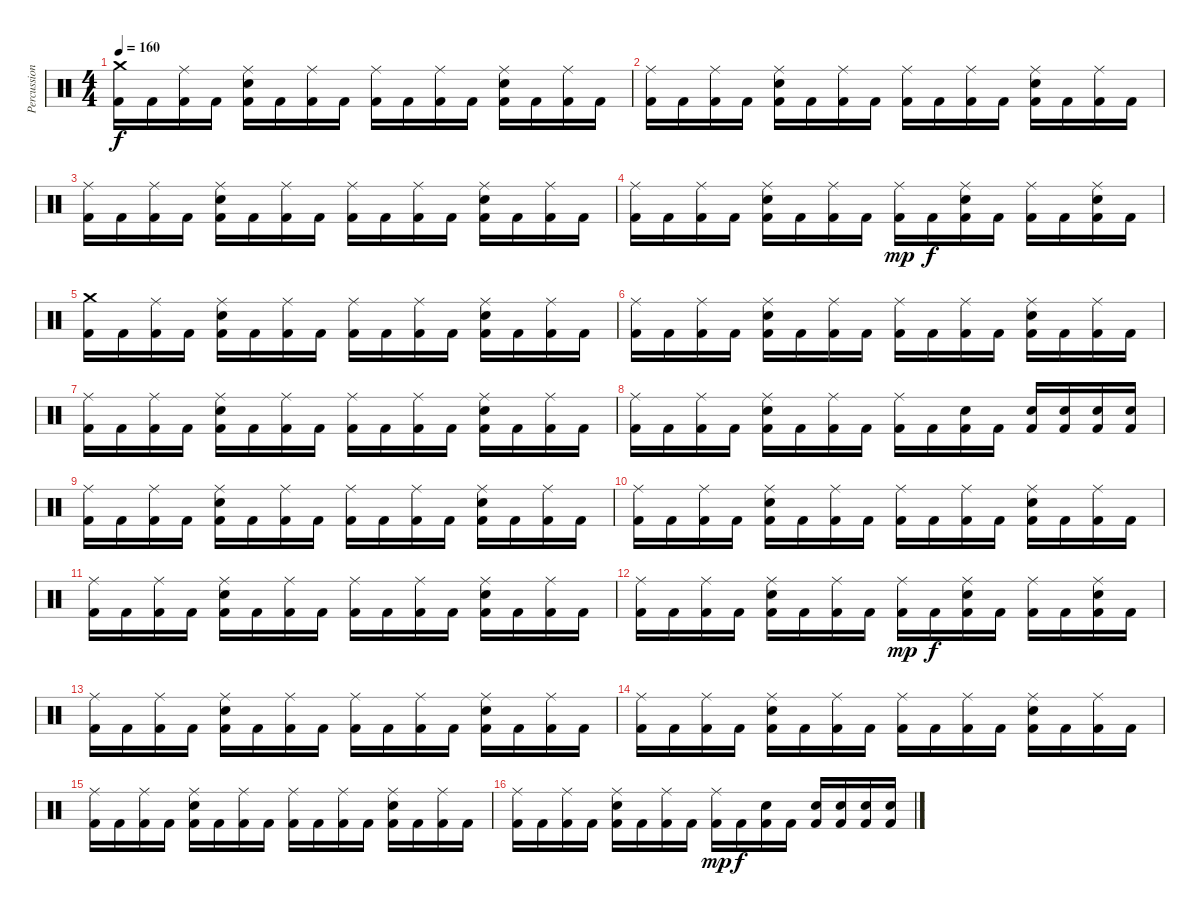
\track ("Percussions" "Percussion") {instrument percussion}
\staff {score}
\articulation defaults
\ts (4 4)
\tempo 160
\clef neutral
\ks c
("Crash medium (hit)" "Kick (hit) 2").16{dy f} "Kick (hit) 2".16 ("Ride (middle)" "Kick (hit) 2").16 "Kick (hit) 2".16 ("Ride (middle)" "Snare (hit) 2" "Kick (hit) 2").16 "Kick (hit) 2".16 ("Ride (middle)" "Kick (hit) 2").16 "Kick (hit) 2".16 ("Ride (middle)" "Kick (hit) 2").16 "Kick (hit) 2".16 ("Ride (middle)" "Kick (hit) 2").16 "Kick (hit) 2".16 ("Ride (middle)" "Snare (hit) 2" "Kick (hit) 2").16 "Kick (hit) 2".16 ("Ride (middle)" "Kick (hit) 2").16 "Kick (hit) 2".16 |
("Ride (middle)" "Kick (hit) 2").16 "Kick (hit) 2".16 ("Ride (middle)" "Kick (hit) 2").16 "Kick (hit) 2".16 ("Ride (middle)" "Snare (hit) 2" "Kick (hit) 2").16 "Kick (hit) 2".16 ("Ride (middle)" "Kick (hit) 2").16 "Kick (hit) 2".16 ("Ride (middle)" "Kick (hit) 2").16 "Kick (hit) 2".16 ("Ride (middle)" "Kick (hit) 2").16 "Kick (hit) 2".16 ("Ride (middle)" "Snare (hit) 2" "Kick (hit) 2").16 "Kick (hit) 2".16 ("Ride (middle)" "Kick (hit) 2").16 "Kick (hit) 2".16 |
("Ride (middle)" "Kick (hit) 2").16 "Kick (hit) 2".16 ("Ride (middle)" "Kick (hit) 2").16 "Kick (hit) 2".16 ("Ride (middle)" "Snare (hit) 2" "Kick (hit) 2").16 "Kick (hit) 2".16 ("Ride (middle)" "Kick (hit) 2").16 "Kick (hit) 2".16 ("Ride (middle)" "Kick (hit) 2").16 "Kick (hit) 2".16 ("Ride (middle)" "Kick (hit) 2").16 "Kick (hit) 2".16 ("Ride (middle)" "Snare (hit) 2" "Kick (hit) 2").16 "Kick (hit) 2".16 ("Ride (middle)" "Kick (hit) 2").16 "Kick (hit) 2".16 |
("Ride (middle)" "Kick (hit) 2").16 "Kick (hit) 2".16 ("Ride (middle)" "Kick (hit) 2").16 "Kick (hit) 2".16 ("Ride (middle)" "Snare (hit) 2" "Kick (hit) 2").16 "Kick (hit) 2".16 ("Ride (middle)" "Kick (hit) 2").16 "Kick (hit) 2".16 ("Ride (middle)" "Kick (hit) 2").16{dy mp} "Kick (hit) 2".16{dy f} ("Ride (middle)" "Snare (hit) 2" "Kick (hit) 2").16 "Kick (hit) 2".16 ("Ride (middle)" "Kick (hit) 2").16 "Kick (hit) 2".16 ("Ride (middle)" "Snare (hit) 2" "Kick (hit) 2").16 "Kick (hit) 2".16 |
("Crash medium (hit)" "Kick (hit) 2").16 "Kick (hit) 2".16 ("Ride (middle)" "Kick (hit) 2").16 "Kick (hit) 2".16 ("Ride (middle)" "Snare (hit) 2" "Kick (hit) 2").16 "Kick (hit) 2".16 ("Ride (middle)" "Kick (hit) 2").16 "Kick (hit) 2".16 ("Ride (middle)" "Kick (hit) 2").16 "Kick (hit) 2".16 ("Ride (middle)" "Kick (hit) 2").16 "Kick (hit) 2".16 ("Ride (middle)" "Snare (hit) 2" "Kick (hit) 2").16 "Kick (hit) 2".16 ("Ride (middle)" "Kick (hit) 2").16 "Kick (hit) 2".16 |
("Ride (middle)" "Kick (hit) 2").16 "Kick (hit) 2".16 ("Ride (middle)" "Kick (hit) 2").16 "Kick (hit) 2".16 ("Ride (middle)" "Snare (hit) 2" "Kick (hit) 2").16 "Kick (hit) 2".16 ("Ride (middle)" "Kick (hit) 2").16 "Kick (hit) 2".16 ("Ride (middle)" "Kick (hit) 2").16 "Kick (hit) 2".16 ("Ride (middle)" "Kick (hit) 2").16 "Kick (hit) 2".16 ("Ride (middle)" "Snare (hit) 2" "Kick (hit) 2").16 "Kick (hit) 2".16 ("Ride (middle)" "Kick (hit) 2").16 "Kick (hit) 2".16 |
("Ride (middle)" "Kick (hit) 2").16 "Kick (hit) 2".16 ("Ride (middle)" "Kick (hit) 2").16 "Kick (hit) 2".16 ("Ride (middle)" "Snare (hit) 2" "Kick (hit) 2").16 "Kick (hit) 2".16 ("Ride (middle)" "Kick (hit) 2").16 "Kick (hit) 2".16 ("Ride (middle)" "Kick (hit) 2").16 "Kick (hit) 2".16 ("Ride (middle)" "Kick (hit) 2").16 "Kick (hit) 2".16 ("Ride (middle)" "Snare (hit) 2" "Kick (hit) 2").16 "Kick (hit) 2".16 ("Ride (middle)" "Kick (hit) 2").16 "Kick (hit) 2".16 |
("Ride (middle)" "Kick (hit) 2").16 "Kick (hit) 2".16 ("Ride (middle)" "Kick (hit) 2").16 "Kick (hit) 2".16 ("Ride (middle)" "Snare (hit) 2" "Kick (hit) 2").16 "Kick (hit) 2".16 ("Ride (middle)" "Kick (hit) 2").16 "Kick (hit) 2".16 ("Ride (middle)" "Kick (hit) 2").16 "Kick (hit) 2".16 ("Snare (hit) 2" "Kick (hit) 2").16 "Kick (hit) 2".16 ("Snare (hit) 2" "Kick (hit) 2").16 ("Snare (hit) 2" "Kick (hit) 2").16 ("Snare (hit) 2" "Kick (hit) 2").16 ("Snare (hit) 2" "Kick (hit) 2").16 |
("Ride (middle)" "Kick (hit) 2").16 "Kick (hit) 2".16 ("Ride (middle)" "Kick (hit) 2").16 "Kick (hit) 2".16 ("Ride (middle)" "Snare (hit) 2" "Kick (hit) 2").16 "Kick (hit) 2".16 ("Ride (middle)" "Kick (hit) 2").16 "Kick (hit) 2".16 ("Ride (middle)" "Kick (hit) 2").16 "Kick (hit) 2".16 ("Ride (middle)" "Kick (hit) 2").16 "Kick (hit) 2".16 ("Ride (middle)" "Snare (hit) 2" "Kick (hit) 2").16 "Kick (hit) 2".16 ("Ride (middle)" "Kick (hit) 2").16 "Kick (hit) 2".16 |
("Ride (middle)" "Kick (hit) 2").16 "Kick (hit) 2".16 ("Ride (middle)" "Kick (hit) 2").16 "Kick (hit) 2".16 ("Ride (middle)" "Snare (hit) 2" "Kick (hit) 2").16 "Kick (hit) 2".16 ("Ride (middle)" "Kick (hit) 2").16 "Kick (hit) 2".16 ("Ride (middle)" "Kick (hit) 2").16 "Kick (hit) 2".16 ("Ride (middle)" "Kick (hit) 2").16 "Kick (hit) 2".16 ("Ride (middle)" "Snare (hit) 2" "Kick (hit) 2").16 "Kick (hit) 2".16 ("Ride (middle)" "Kick (hit) 2").16 "Kick (hit) 2".16 |
("Ride (middle)" "Kick (hit) 2").16 "Kick (hit) 2".16 ("Ride (middle)" "Kick (hit) 2").16 "Kick (hit) 2".16 ("Ride (middle)" "Snare (hit) 2" "Kick (hit) 2").16 "Kick (hit) 2".16 ("Ride (middle)" "Kick (hit) 2").16 "Kick (hit) 2".16 ("Ride (middle)" "Kick (hit) 2").16 "Kick (hit) 2".16 ("Ride (middle)" "Kick (hit) 2").16 "Kick (hit) 2".16 ("Ride (middle)" "Snare (hit) 2" "Kick (hit) 2").16 "Kick (hit) 2".16 ("Ride (middle)" "Kick (hit) 2").16 "Kick (hit) 2".16 |
("Ride (middle)" "Kick (hit) 2").16 "Kick (hit) 2".16 ("Ride (middle)" "Kick (hit) 2").16 "Kick (hit) 2".16 ("Ride (middle)" "Snare (hit) 2" "Kick (hit) 2").16 "Kick (hit) 2".16 ("Ride (middle)" "Kick (hit) 2").16 "Kick (hit) 2".16 ("Ride (middle)" "Kick (hit) 2").16{dy mp} "Kick (hit) 2".16{dy f} ("Ride (middle)" "Snare (hit) 2" "Kick (hit) 2").16 "Kick (hit) 2".16 ("Ride (middle)" "Kick (hit) 2").16 "Kick (hit) 2".16 ("Ride (middle)" "Snare (hit) 2" "Kick (hit) 2").16 "Kick (hit) 2".16 |
("Ride (middle)" "Kick (hit) 2").16 "Kick (hit) 2".16 ("Ride (middle)" "Kick (hit) 2").16 "Kick (hit) 2".16 ("Ride (middle)" "Snare (hit) 2" "Kick (hit) 2").16 "Kick (hit) 2".16 ("Ride (middle)" "Kick (hit) 2").16 "Kick (hit) 2".16 ("Ride (middle)" "Kick (hit) 2").16 "Kick (hit) 2".16 ("Ride (middle)" "Kick (hit) 2").16 "Kick (hit) 2".16 ("Ride (middle)" "Snare (hit) 2" "Kick (hit) 2").16 "Kick (hit) 2".16 ("Ride (middle)" "Kick (hit) 2").16 "Kick (hit) 2".16 |
("Ride (middle)" "Kick (hit) 2").16 "Kick (hit) 2".16 ("Ride (middle)" "Kick (hit) 2").16 "Kick (hit) 2".16 ("Ride (middle)" "Snare (hit) 2" "Kick (hit) 2").16 "Kick (hit) 2".16 ("Ride (middle)" "Kick (hit) 2").16 "Kick (hit) 2".16 ("Ride (middle)" "Kick (hit) 2").16 "Kick (hit) 2".16 ("Ride (middle)" "Kick (hit) 2").16 "Kick (hit) 2".16 ("Ride (middle)" "Snare (hit) 2" "Kick (hit) 2").16 "Kick (hit) 2".16 ("Ride (middle)" "Kick (hit) 2").16 "Kick (hit) 2".16 |
("Ride (middle)" "Kick (hit) 2").16 "Kick (hit) 2".16 ("Ride (middle)" "Kick (hit) 2").16 "Kick (hit) 2".16 ("Ride (middle)" "Snare (hit) 2" "Kick (hit) 2").16 "Kick (hit) 2".16 ("Ride (middle)" "Kick (hit) 2").16 "Kick (hit) 2".16 ("Ride (middle)" "Kick (hit) 2").16 "Kick (hit) 2".16 ("Ride (middle)" "Kick (hit) 2").16 "Kick (hit) 2".16 ("Ride (middle)" "Snare (hit) 2" "Kick (hit) 2").16 "Kick (hit) 2".16 ("Ride (middle)" "Kick (hit) 2").16 "Kick (hit) 2".16 |
("Ride (middle)" "Kick (hit) 2").16 "Kick (hit) 2".16 ("Ride (middle)" "Kick (hit) 2").16 "Kick (hit) 2".16 ("Ride (middle)" "Snare (hit) 2" "Kick (hit) 2").16 "Kick (hit) 2".16 ("Ride (middle)" "Kick (hit) 2").16 "Kick (hit) 2".16 ("Ride (middle)" "Kick (hit) 2").16{dy mp} "Kick (hit) 2".16{dy f} ("Snare (hit) 2" "Kick (hit) 2").16 "Kick (hit) 2".16 ("Snare (hit) 2" "Kick (hit) 2").16 ("Snare (hit) 2" "Kick (hit) 2").16 ("Snare (hit) 2" "Kick (hit) 2").16 ("Snare (hit) 2" "Kick (hit) 2").16
